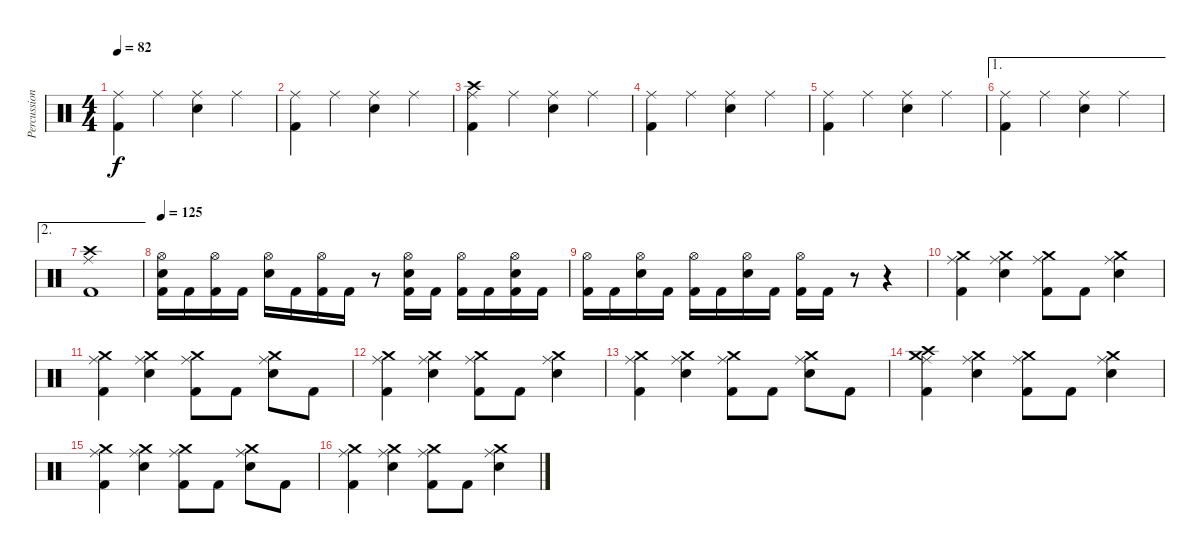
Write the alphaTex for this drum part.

\track ("Percussions" "Percussion") {instrument percussion}
\staff {score}
\articulation defaults
\ts (4 4)
\tempo 82
\clef neutral
\ks c
("Ride (middle)" "Kick (hit) 2").4{dy f} "Ride (middle)".4 ("Ride (middle)" "Electric Snare (hit)").4 "Ride (middle)".4 |
("Ride (middle)" "Kick (hit) 2").4 "Ride (middle)".4 ("Ride (middle)" "Electric Snare (hit)").4 "Ride (middle)".4 |
("Crash high (hit)" "Ride (middle)" "Kick (hit) 2").4 "Ride (middle)".4 ("Ride (middle)" "Electric Snare (hit)").4 "Ride (middle)".4 |
("Ride (middle)" "Kick (hit) 2").4 "Ride (middle)".4 ("Ride (middle)" "Electric Snare (hit)").4 "Ride (middle)".4 |
("Ride (middle)" "Kick (hit) 2").4 "Ride (middle)".4 ("Ride (middle)" "Electric Snare (hit)").4 "Ride (middle)".4 |
\ae 1
("Ride (middle)" "Kick (hit) 2").4 "Ride (middle)".4 ("Ride (middle)" "Electric Snare (hit)").4 "Ride (middle)".4 |
\ae 2
("Crash high (hit)" "Kick (hit) 2" "Ride (middle)").1 |
\tempo 125
("Hi-Hat (open)" "Electric Snare (hit)" "Kick (hit) 2").16 "Kick (hit) 2".16 ("Hi-Hat (open)" "Kick (hit) 2").16 "Kick (hit) 2".16 ("Hi-Hat (open)" "Electric Snare (hit)").16 "Kick (hit) 2".16 ("Hi-Hat (open)" "Kick (hit) 2").16 "Kick (hit) 2".16 r.8 ("Hi-Hat (open)" "Electric Snare (hit)" "Kick (hit) 2").16 "Kick (hit) 2".16 ("Hi-Hat (open)" "Kick (hit) 2").16 "Kick (hit) 2".16 ("Hi-Hat (open)" "Electric Snare (hit)" "Kick (hit) 2").16 "Kick (hit) 2".16 |
("Hi-Hat (open)" "Kick (hit) 2").16 "Kick (hit) 2".16 ("Hi-Hat (open)" "Electric Snare (hit)").16 "Kick (hit) 2".16 ("Hi-Hat (open)" "Kick (hit) 2").16 "Kick (hit) 2".16 ("Hi-Hat (open)" "Electric Snare (hit)").16 "Kick (hit) 2".16 ("Hi-Hat (open)" "Kick (hit) 2").16 "Kick (hit) 2".16 r.8 r.4 |
("Ride (middle)" "Crash medium (hit)" "Kick (hit) 2").4 ("Ride (middle)" "Crash medium (hit)" "Electric Snare (hit)").4 ("Ride (middle)" "Crash medium (hit)" "Kick (hit) 2").8 "Kick (hit) 2".8 ("Ride (middle)" "Crash medium (hit)" "Electric Snare (hit)").4 |
("Ride (middle)" "Crash medium (hit)" "Kick (hit) 2").4 ("Ride (middle)" "Crash medium (hit)" "Electric Snare (hit)").4 ("Ride (middle)" "Crash medium (hit)" "Kick (hit) 2").8 "Kick (hit) 2".8 ("Ride (middle)" "Crash medium (hit)" "Electric Snare (hit)").8 "Kick (hit) 2".8 |
("Ride (middle)" "Crash medium (hit)" "Kick (hit) 2").4 ("Ride (middle)" "Crash medium (hit)" "Electric Snare (hit)").4 ("Ride (middle)" "Crash medium (hit)" "Kick (hit) 2").8 "Kick (hit) 2".8 ("Ride (middle)" "Crash medium (hit)" "Electric Snare (hit)").4 |
("Ride (middle)" "Crash medium (hit)" "Kick (hit) 2").4 ("Ride (middle)" "Crash medium (hit)" "Electric Snare (hit)").4 ("Ride (middle)" "Crash medium (hit)" "Kick (hit) 2").8 "Kick (hit) 2".8 ("Ride (middle)" "Crash medium (hit)" "Electric Snare (hit)").8 "Kick (hit) 2".8 |
("Crash high (hit)" "Ride (middle)" "Crash medium (hit)" "Kick (hit) 2").4 ("Ride (middle)" "Crash medium (hit)" "Electric Snare (hit)").4 ("Ride (middle)" "Crash medium (hit)" "Kick (hit) 2").8 "Kick (hit) 2".8 ("Ride (middle)" "Crash medium (hit)" "Electric Snare (hit)").4 |
("Ride (middle)" "Crash medium (hit)" "Kick (hit) 2").4 ("Ride (middle)" "Crash medium (hit)" "Electric Snare (hit)").4 ("Ride (middle)" "Crash medium (hit)" "Kick (hit) 2").8 "Kick (hit) 2".8 ("Ride (middle)" "Crash medium (hit)" "Electric Snare (hit)").8 "Kick (hit) 2".8 |
("Ride (middle)" "Crash medium (hit)" "Kick (hit) 2").4 ("Ride (middle)" "Crash medium (hit)" "Electric Snare (hit)").4 ("Ride (middle)" "Crash medium (hit)" "Kick (hit) 2").8 "Kick (hit) 2".8 ("Ride (middle)" "Crash medium (hit)" "Electric Snare (hit)").4
